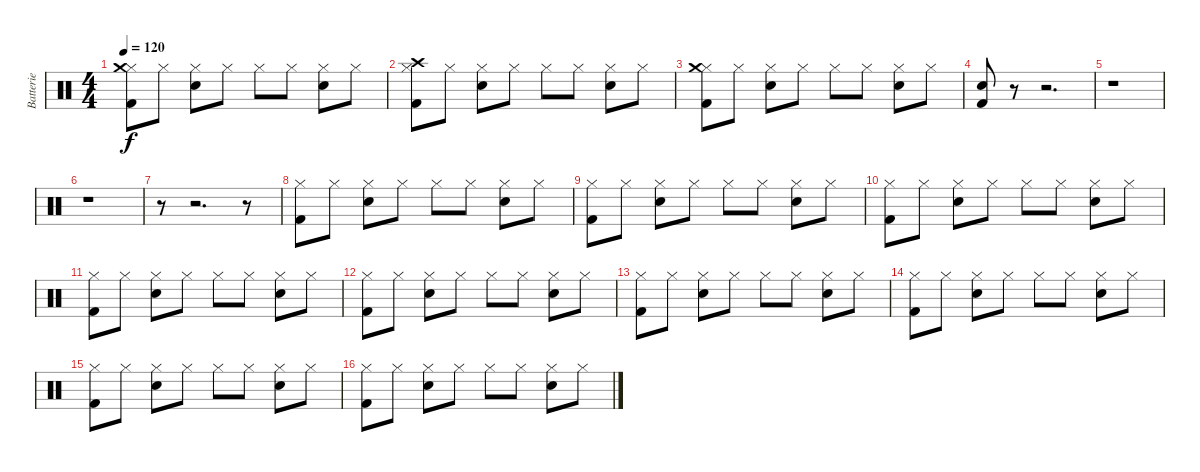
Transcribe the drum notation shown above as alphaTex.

\track ("Batterie" "Batterie") {instrument percussion}
\staff {score}
\articulation defaults
\ts (4 4)
\tempo 120
\clef neutral
\ks c
("Hi-Hat (closed)" "Crash medium (hit)" "Kick (hit) 2").8{dy f} "Hi-Hat (closed)".8 ("Hi-Hat (closed)" "Electric Snare (hit)").8 "Hi-Hat (closed)".8 "Hi-Hat (closed)".8 "Hi-Hat (closed)".8 ("Hi-Hat (closed)" "Electric Snare (hit)").8 "Hi-Hat (closed)".8 |
("Hi-Hat (closed)" "Crash high (hit)" "Kick (hit) 2").8 "Hi-Hat (closed)".8 ("Hi-Hat (closed)" "Electric Snare (hit)").8 "Hi-Hat (closed)".8 "Hi-Hat (closed)".8 "Hi-Hat (closed)".8 ("Hi-Hat (closed)" "Electric Snare (hit)").8 "Hi-Hat (closed)".8 |
("Hi-Hat (closed)" "Crash medium (hit)" "Kick (hit) 2").8 "Hi-Hat (closed)".8 ("Hi-Hat (closed)" "Electric Snare (hit)").8 "Hi-Hat (closed)".8 "Hi-Hat (closed)".8 "Hi-Hat (closed)".8 ("Hi-Hat (closed)" "Electric Snare (hit)").8 "Hi-Hat (closed)".8 |
("Electric Snare (hit)" "Kick (hit) 2").8 r.8 r.2{d} |
r.1 |
r.1 |
r.8 r.2{d} r.8 |
("Hi-Hat (closed)" "Kick (hit) 2").8 "Hi-Hat (closed)".8 ("Hi-Hat (closed)" "Electric Snare (hit)").8 "Hi-Hat (closed)".8 "Hi-Hat (closed)".8 "Hi-Hat (closed)".8 ("Hi-Hat (closed)" "Electric Snare (hit)").8 "Hi-Hat (closed)".8 |
("Hi-Hat (closed)" "Kick (hit) 2").8 "Hi-Hat (closed)".8 ("Hi-Hat (closed)" "Electric Snare (hit)").8 "Hi-Hat (closed)".8 "Hi-Hat (closed)".8 "Hi-Hat (closed)".8 ("Hi-Hat (closed)" "Electric Snare (hit)").8 "Hi-Hat (closed)".8 |
("Hi-Hat (closed)" "Kick (hit) 2").8 "Hi-Hat (closed)".8 ("Hi-Hat (closed)" "Electric Snare (hit)").8 "Hi-Hat (closed)".8 "Hi-Hat (closed)".8 "Hi-Hat (closed)".8 ("Hi-Hat (closed)" "Electric Snare (hit)").8 "Hi-Hat (closed)".8 |
("Hi-Hat (closed)" "Kick (hit) 2").8 "Hi-Hat (closed)".8 ("Hi-Hat (closed)" "Electric Snare (hit)").8 "Hi-Hat (closed)".8 "Hi-Hat (closed)".8 "Hi-Hat (closed)".8 ("Hi-Hat (closed)" "Electric Snare (hit)").8 "Hi-Hat (closed)".8 |
("Hi-Hat (closed)" "Kick (hit) 2").8 "Hi-Hat (closed)".8 ("Hi-Hat (closed)" "Electric Snare (hit)").8 "Hi-Hat (closed)".8 "Hi-Hat (closed)".8 "Hi-Hat (closed)".8 ("Hi-Hat (closed)" "Electric Snare (hit)").8 "Hi-Hat (closed)".8 |
("Hi-Hat (closed)" "Kick (hit) 2").8 "Hi-Hat (closed)".8 ("Hi-Hat (closed)" "Electric Snare (hit)").8 "Hi-Hat (closed)".8 "Hi-Hat (closed)".8 "Hi-Hat (closed)".8 ("Hi-Hat (closed)" "Electric Snare (hit)").8 "Hi-Hat (closed)".8 |
("Hi-Hat (closed)" "Kick (hit) 2").8 "Hi-Hat (closed)".8 ("Hi-Hat (closed)" "Electric Snare (hit)").8 "Hi-Hat (closed)".8 "Hi-Hat (closed)".8 "Hi-Hat (closed)".8 ("Hi-Hat (closed)" "Electric Snare (hit)").8 "Hi-Hat (closed)".8 |
("Hi-Hat (closed)" "Kick (hit) 2").8 "Hi-Hat (closed)".8 ("Hi-Hat (closed)" "Electric Snare (hit)").8 "Hi-Hat (closed)".8 "Hi-Hat (closed)".8 "Hi-Hat (closed)".8 ("Hi-Hat (closed)" "Electric Snare (hit)").8 "Hi-Hat (closed)".8 |
("Hi-Hat (closed)" "Kick (hit) 2").8 "Hi-Hat (closed)".8 ("Hi-Hat (closed)" "Electric Snare (hit)").8 "Hi-Hat (closed)".8 "Hi-Hat (closed)".8 "Hi-Hat (closed)".8 ("Hi-Hat (closed)" "Electric Snare (hit)").8 "Hi-Hat (closed)".8
